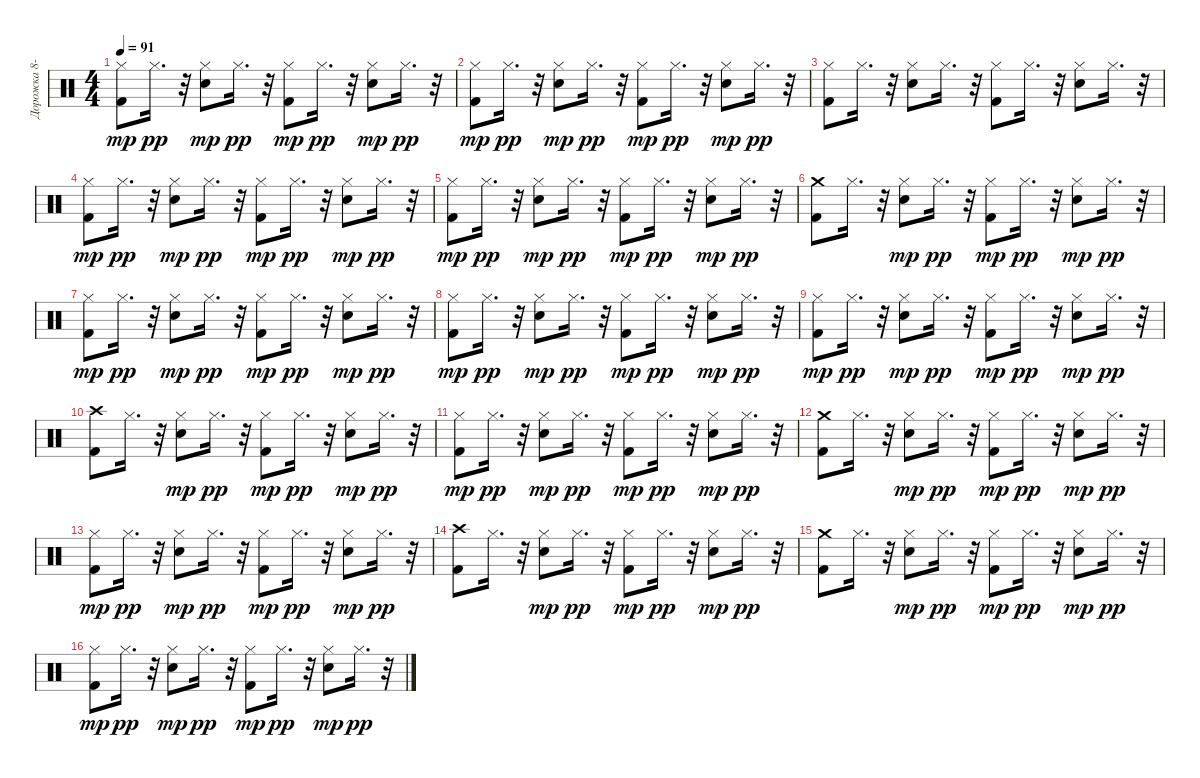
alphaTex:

\track ("Дорожка 8-9-10-11" "Дорожка 8-") {instrument percussion}
\staff {score}
\articulation defaults
\ts (4 4)
\tempo 91
\clef neutral
\ks c
("Hi-Hat (closed)" "Kick (hit) 2").8{dy mp} "Hi-Hat (closed)".16{d dy pp} r.32 ("Hi-Hat (closed)" "Electric Snare (hit)").8{dy mp} "Hi-Hat (closed)".16{d dy pp} r.32 ("Hi-Hat (closed)" "Kick (hit) 2").8{dy mp} "Hi-Hat (closed)".16{d dy pp} r.32 ("Hi-Hat (closed)" "Electric Snare (hit)").8{dy mp} "Hi-Hat (closed)".16{d dy pp} r.32 |
("Hi-Hat (closed)" "Kick (hit) 2").8{dy mp} "Hi-Hat (closed)".16{d dy pp} r.32 ("Hi-Hat (closed)" "Electric Snare (hit)").8{dy mp} "Hi-Hat (closed)".16{d dy pp} r.32 ("Hi-Hat (closed)" "Kick (hit) 2").8{dy mp} "Hi-Hat (closed)".16{d dy pp} r.32 ("Hi-Hat (closed)" "Electric Snare (hit)").8{dy mp} "Hi-Hat (closed)".16{d dy pp} r.32 |
("Kick (hit) 2" "Hi-Hat (closed)").8 "Hi-Hat (closed)".16{d} r.32 ("Electric Snare (hit)" "Hi-Hat (closed)").8 "Hi-Hat (closed)".16{d} r.32 ("Kick (hit) 2" "Hi-Hat (closed)").8 "Hi-Hat (closed)".16{d} r.32 ("Electric Snare (hit)" "Hi-Hat (closed)").8 "Hi-Hat (closed)".16{d} r.32 |
("Hi-Hat (closed)" "Kick (hit) 2").8{dy mp} "Hi-Hat (closed)".16{d dy pp} r.32 ("Hi-Hat (closed)" "Electric Snare (hit)").8{dy mp} "Hi-Hat (closed)".16{d dy pp} r.32 ("Hi-Hat (closed)" "Kick (hit) 2").8{dy mp} "Hi-Hat (closed)".16{d dy pp} r.32 ("Hi-Hat (closed)" "Electric Snare (hit)").8{dy mp} "Hi-Hat (closed)".16{d dy pp} r.32 |
("Hi-Hat (closed)" "Kick (hit) 2").8{dy mp} "Hi-Hat (closed)".16{d dy pp} r.32 ("Hi-Hat (closed)" "Electric Snare (hit)").8{dy mp} "Hi-Hat (closed)".16{d dy pp} r.32 ("Hi-Hat (closed)" "Kick (hit) 2").8{dy mp} "Hi-Hat (closed)".16{d dy pp} r.32 ("Hi-Hat (closed)" "Electric Snare (hit)").8{dy mp} "Hi-Hat (closed)".16{d dy pp} r.32 |
("Kick (hit) 2" "Crash medium (hit)").8 "Hi-Hat (closed)".16{d} r.32 ("Hi-Hat (closed)" "Electric Snare (hit)").8{dy mp} "Hi-Hat (closed)".16{d dy pp} r.32 ("Hi-Hat (closed)" "Kick (hit) 2").8{dy mp} "Hi-Hat (closed)".16{d dy pp} r.32 ("Hi-Hat (closed)" "Electric Snare (hit)").8{dy mp} "Hi-Hat (closed)".16{d dy pp} r.32 |
("Hi-Hat (closed)" "Kick (hit) 2").8{dy mp} "Hi-Hat (closed)".16{d dy pp} r.32 ("Hi-Hat (closed)" "Electric Snare (hit)").8{dy mp} "Hi-Hat (closed)".16{d dy pp} r.32 ("Hi-Hat (closed)" "Kick (hit) 2").8{dy mp} "Hi-Hat (closed)".16{d dy pp} r.32 ("Hi-Hat (closed)" "Electric Snare (hit)").8{dy mp} "Hi-Hat (closed)".16{d dy pp} r.32 |
("Hi-Hat (closed)" "Kick (hit) 2").8{dy mp} "Hi-Hat (closed)".16{d dy pp} r.32 ("Hi-Hat (closed)" "Electric Snare (hit)").8{dy mp} "Hi-Hat (closed)".16{d dy pp} r.32 ("Hi-Hat (closed)" "Kick (hit) 2").8{dy mp} "Hi-Hat (closed)".16{d dy pp} r.32 ("Hi-Hat (closed)" "Electric Snare (hit)").8{dy mp} "Hi-Hat (closed)".16{d dy pp} r.32 |
("Hi-Hat (closed)" "Kick (hit) 2").8{dy mp} "Hi-Hat (closed)".16{d dy pp} r.32 ("Hi-Hat (closed)" "Electric Snare (hit)").8{dy mp} "Hi-Hat (closed)".16{d dy pp} r.32 ("Hi-Hat (closed)" "Kick (hit) 2").8{dy mp} "Hi-Hat (closed)".16{d dy pp} r.32 ("Hi-Hat (closed)" "Electric Snare (hit)").8{dy mp} "Hi-Hat (closed)".16{d dy pp} r.32 |
("Kick (hit) 2" "Crash high (hit)").8 "Hi-Hat (closed)".16{d} r.32 ("Hi-Hat (closed)" "Electric Snare (hit)").8{dy mp} "Hi-Hat (closed)".16{d dy pp} r.32 ("Hi-Hat (closed)" "Kick (hit) 2").8{dy mp} "Hi-Hat (closed)".16{d dy pp} r.32 ("Hi-Hat (closed)" "Electric Snare (hit)").8{dy mp} "Hi-Hat (closed)".16{d dy pp} r.32 |
("Hi-Hat (closed)" "Kick (hit) 2").8{dy mp} "Hi-Hat (closed)".16{d dy pp} r.32 ("Hi-Hat (closed)" "Electric Snare (hit)").8{dy mp} "Hi-Hat (closed)".16{d dy pp} r.32 ("Hi-Hat (closed)" "Kick (hit) 2").8{dy mp} "Hi-Hat (closed)".16{d dy pp} r.32 ("Hi-Hat (closed)" "Electric Snare (hit)").8{dy mp} "Hi-Hat (closed)".16{d dy pp} r.32 |
("Kick (hit) 2" "Crash medium (hit)").8 "Hi-Hat (closed)".16{d} r.32 ("Hi-Hat (closed)" "Electric Snare (hit)").8{dy mp} "Hi-Hat (closed)".16{d dy pp} r.32 ("Hi-Hat (closed)" "Kick (hit) 2").8{dy mp} "Hi-Hat (closed)".16{d dy pp} r.32 ("Hi-Hat (closed)" "Electric Snare (hit)").8{dy mp} "Hi-Hat (closed)".16{d dy pp} r.32 |
("Hi-Hat (closed)" "Kick (hit) 2").8{dy mp} "Hi-Hat (closed)".16{d dy pp} r.32 ("Hi-Hat (closed)" "Electric Snare (hit)").8{dy mp} "Hi-Hat (closed)".16{d dy pp} r.32 ("Hi-Hat (closed)" "Kick (hit) 2").8{dy mp} "Hi-Hat (closed)".16{d dy pp} r.32 ("Hi-Hat (closed)" "Electric Snare (hit)").8{dy mp} "Hi-Hat (closed)".16{d dy pp} r.32 |
("Kick (hit) 2" "Crash high (hit)").8 "Hi-Hat (closed)".16{d} r.32 ("Hi-Hat (closed)" "Electric Snare (hit)").8{dy mp} "Hi-Hat (closed)".16{d dy pp} r.32 ("Hi-Hat (closed)" "Kick (hit) 2").8{dy mp} "Hi-Hat (closed)".16{d dy pp} r.32 ("Hi-Hat (closed)" "Electric Snare (hit)").8{dy mp} "Hi-Hat (closed)".16{d dy pp} r.32 |
("Kick (hit) 2" "Crash medium (hit)").8 "Hi-Hat (closed)".16{d} r.32 ("Hi-Hat (closed)" "Electric Snare (hit)").8{dy mp} "Hi-Hat (closed)".16{d dy pp} r.32 ("Hi-Hat (closed)" "Kick (hit) 2").8{dy mp} "Hi-Hat (closed)".16{d dy pp} r.32 ("Hi-Hat (closed)" "Electric Snare (hit)").8{dy mp} "Hi-Hat (closed)".16{d dy pp} r.32 |
("Hi-Hat (closed)" "Kick (hit) 2").8{dy mp} "Hi-Hat (closed)".16{d dy pp} r.32 ("Hi-Hat (closed)" "Electric Snare (hit)").8{dy mp} "Hi-Hat (closed)".16{d dy pp} r.32 ("Hi-Hat (closed)" "Kick (hit) 2").8{dy mp} "Hi-Hat (closed)".16{d dy pp} r.32 ("Hi-Hat (closed)" "Electric Snare (hit)").8{dy mp} "Hi-Hat (closed)".16{d dy pp} r.32
